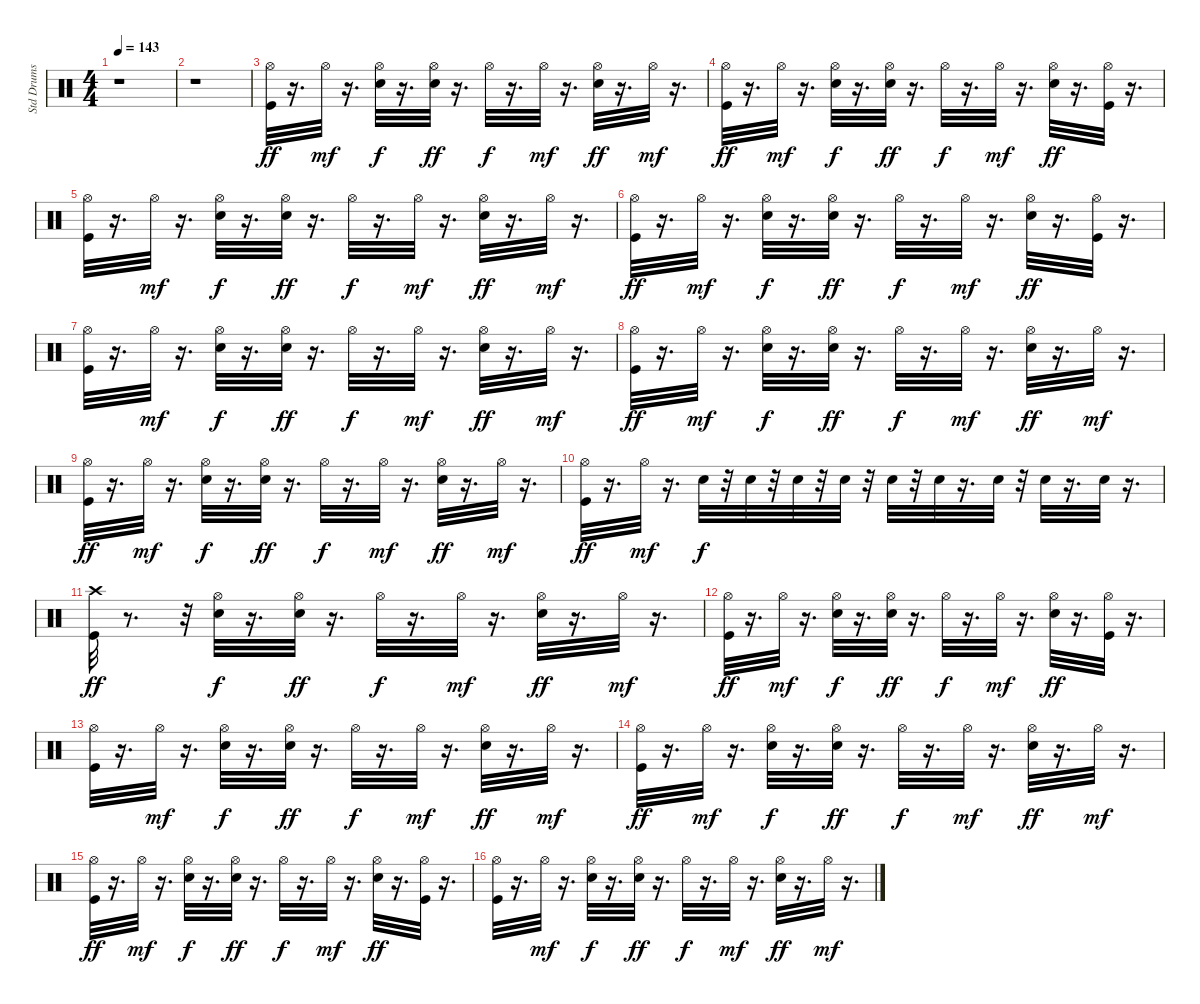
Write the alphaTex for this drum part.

\track ("Std Drums" "Std Drums") {instrument percussion}
\staff {score}
\articulation defaults
\ts (4 4)
\tempo 143
\clef neutral
\ks c
r.1{dy ff} |
r.1 |
("Hi-Hat (open)" "Kick (hit)").32 r.16{d} "Hi-Hat (open)".32{dy mf} r.16{d} ("Hi-Hat (open)" "Snare (hit) 2").32{dy f} r.16{d} ("Hi-Hat (open)" "Snare (hit) 2").32{dy ff} r.16{d} "Hi-Hat (open)".32{dy f} r.16{d} "Hi-Hat (open)".32{dy mf} r.16{d} ("Hi-Hat (open)" "Snare (hit) 2").32{dy ff} r.16{d} "Hi-Hat (open)".32{dy mf} r.16{d} |
("Hi-Hat (open)" "Kick (hit)").32{dy ff} r.16{d} "Hi-Hat (open)".32{dy mf} r.16{d} ("Hi-Hat (open)" "Snare (hit) 2").32{dy f} r.16{d} ("Hi-Hat (open)" "Snare (hit) 2").32{dy ff} r.16{d} "Hi-Hat (open)".32{dy f} r.16{d} "Hi-Hat (open)".32{dy mf} r.16{d} ("Hi-Hat (open)" "Snare (hit) 2").32{dy ff} r.16{d} ("Hi-Hat (open)" "Kick (hit)").32 r.16{d} |
("Hi-Hat (open)" "Kick (hit)").32 r.16{d} "Hi-Hat (open)".32{dy mf} r.16{d} ("Hi-Hat (open)" "Snare (hit) 2").32{dy f} r.16{d} ("Hi-Hat (open)" "Snare (hit) 2").32{dy ff} r.16{d} "Hi-Hat (open)".32{dy f} r.16{d} "Hi-Hat (open)".32{dy mf} r.16{d} ("Hi-Hat (open)" "Snare (hit) 2").32{dy ff} r.16{d} "Hi-Hat (open)".32{dy mf} r.16{d} |
("Hi-Hat (open)" "Kick (hit)").32{dy ff} r.16{d} "Hi-Hat (open)".32{dy mf} r.16{d} ("Hi-Hat (open)" "Snare (hit) 2").32{dy f} r.16{d} ("Hi-Hat (open)" "Snare (hit) 2").32{dy ff} r.16{d} "Hi-Hat (open)".32{dy f} r.16{d} "Hi-Hat (open)".32{dy mf} r.16{d} ("Hi-Hat (open)" "Snare (hit) 2").32{dy ff} r.16{d} ("Hi-Hat (open)" "Kick (hit)").32 r.16{d} |
("Hi-Hat (open)" "Kick (hit)").32 r.16{d} "Hi-Hat (open)".32{dy mf} r.16{d} ("Hi-Hat (open)" "Snare (hit) 2").32{dy f} r.16{d} ("Hi-Hat (open)" "Snare (hit) 2").32{dy ff} r.16{d} "Hi-Hat (open)".32{dy f} r.16{d} "Hi-Hat (open)".32{dy mf} r.16{d} ("Hi-Hat (open)" "Snare (hit) 2").32{dy ff} r.16{d} "Hi-Hat (open)".32{dy mf} r.16{d} |
("Hi-Hat (open)" "Kick (hit)").32{dy ff} r.16{d} "Hi-Hat (open)".32{dy mf} r.16{d} ("Hi-Hat (open)" "Snare (hit) 2").32{dy f} r.16{d} ("Hi-Hat (open)" "Snare (hit) 2").32{dy ff} r.16{d} "Hi-Hat (open)".32{dy f} r.16{d} "Hi-Hat (open)".32{dy mf} r.16{d} ("Hi-Hat (open)" "Snare (hit) 2").32{dy ff} r.16{d} "Hi-Hat (open)".32{dy mf} r.16{d} |
("Hi-Hat (open)" "Kick (hit)").32{dy ff} r.16{d} "Hi-Hat (open)".32{dy mf} r.16{d} ("Hi-Hat (open)" "Snare (hit) 2").32{dy f} r.16{d} ("Hi-Hat (open)" "Snare (hit) 2").32{dy ff} r.16{d} "Hi-Hat (open)".32{dy f} r.16{d} "Hi-Hat (open)".32{dy mf} r.16{d} ("Hi-Hat (open)" "Snare (hit) 2").32{dy ff} r.16{d} "Hi-Hat (open)".32{dy mf} r.16{d} |
("Hi-Hat (open)" "Kick (hit)").32{dy ff} r.16{d} "Hi-Hat (open)".32{dy mf} r.16{d} "Snare (hit) 2".32{dy f} r.32 "Snare (hit) 2".32 r.32 "Snare (hit) 2".32 r.32 "Snare (hit) 2".32 r.32 "Snare (hit) 2".32 r.32 "Snare (hit) 2".32 r.16{d} "Snare (hit) 2".32 r.32 "Snare (hit) 2".32 r.16{d} "Snare (hit) 2".32 r.16{d} |
("Kick (hit)" "Crash high (hit)").32{dy ff} r.8{d} r.32 ("Hi-Hat (open)" "Snare (hit) 2").32{dy f} r.16{d} ("Hi-Hat (open)" "Snare (hit) 2").32{dy ff} r.16{d} "Hi-Hat (open)".32{dy f} r.16{d} "Hi-Hat (open)".32{dy mf} r.16{d} ("Hi-Hat (open)" "Snare (hit) 2").32{dy ff} r.16{d} "Hi-Hat (open)".32{dy mf} r.16{d} |
("Hi-Hat (open)" "Kick (hit)").32{dy ff} r.16{d} "Hi-Hat (open)".32{dy mf} r.16{d} ("Hi-Hat (open)" "Snare (hit) 2").32{dy f} r.16{d} ("Hi-Hat (open)" "Snare (hit) 2").32{dy ff} r.16{d} "Hi-Hat (open)".32{dy f} r.16{d} "Hi-Hat (open)".32{dy mf} r.16{d} ("Hi-Hat (open)" "Snare (hit) 2").32{dy ff} r.16{d} ("Hi-Hat (open)" "Kick (hit)").32 r.16{d} |
("Hi-Hat (open)" "Kick (hit)").32 r.16{d} "Hi-Hat (open)".32{dy mf} r.16{d} ("Hi-Hat (open)" "Snare (hit) 2").32{dy f} r.16{d} ("Hi-Hat (open)" "Snare (hit) 2").32{dy ff} r.16{d} "Hi-Hat (open)".32{dy f} r.16{d} "Hi-Hat (open)".32{dy mf} r.16{d} ("Hi-Hat (open)" "Snare (hit) 2").32{dy ff} r.16{d} "Hi-Hat (open)".32{dy mf} r.16{d} |
("Hi-Hat (open)" "Kick (hit)").32{dy ff} r.16{d} "Hi-Hat (open)".32{dy mf} r.16{d} ("Hi-Hat (open)" "Snare (hit) 2").32{dy f} r.16{d} ("Hi-Hat (open)" "Snare (hit) 2").32{dy ff} r.16{d} "Hi-Hat (open)".32{dy f} r.16{d} "Hi-Hat (open)".32{dy mf} r.16{d} ("Hi-Hat (open)" "Snare (hit) 2").32{dy ff} r.16{d} "Hi-Hat (open)".32{dy mf} r.16{d} |
("Hi-Hat (open)" "Kick (hit)").32{dy ff} r.16{d} "Hi-Hat (open)".32{dy mf} r.16{d} ("Hi-Hat (open)" "Snare (hit) 2").32{dy f} r.16{d} ("Hi-Hat (open)" "Snare (hit) 2").32{dy ff} r.16{d} "Hi-Hat (open)".32{dy f} r.16{d} "Hi-Hat (open)".32{dy mf} r.16{d} ("Hi-Hat (open)" "Snare (hit) 2").32{dy ff} r.16{d} ("Hi-Hat (open)" "Kick (hit)").32 r.16{d} |
("Hi-Hat (open)" "Kick (hit)").32 r.16{d} "Hi-Hat (open)".32{dy mf} r.16{d} ("Hi-Hat (open)" "Snare (hit) 2").32{dy f} r.16{d} ("Hi-Hat (open)" "Snare (hit) 2").32{dy ff} r.16{d} "Hi-Hat (open)".32{dy f} r.16{d} "Hi-Hat (open)".32{dy mf} r.16{d} ("Hi-Hat (open)" "Snare (hit) 2").32{dy ff} r.16{d} "Hi-Hat (open)".32{dy mf} r.16{d}
